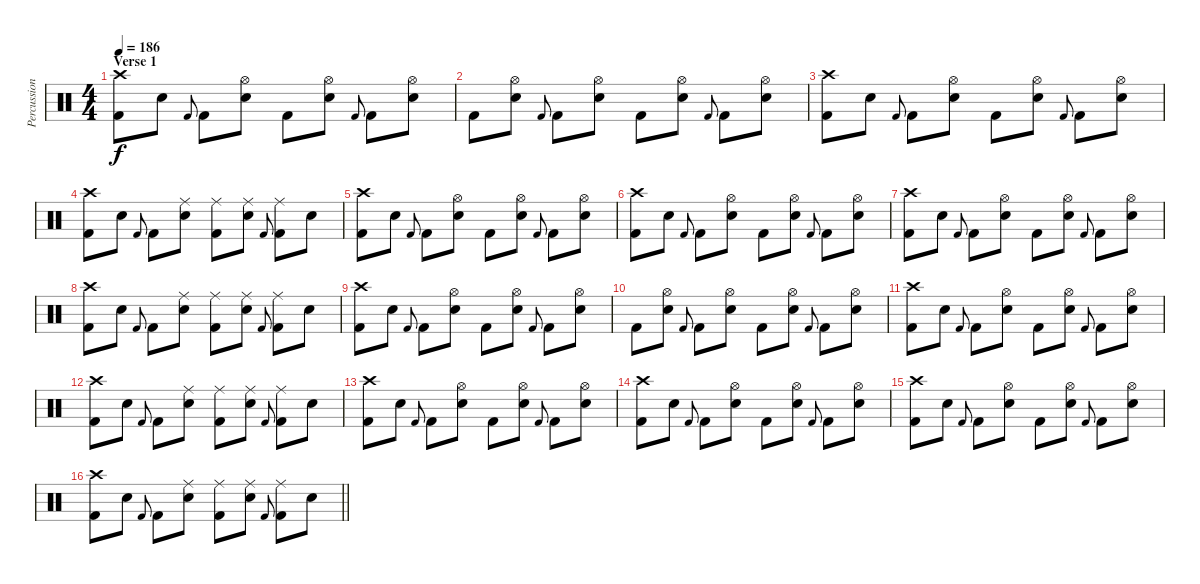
\track ("Percussion" "Percussion") {instrument percussion}
\staff {score}
\articulation defaults
\ts (4 4)
\section ("" "Verse 1")
\tempo 186
\clef neutral
\ks c
("Crash high (hit)" "Kick (hit) 2").8{dy f} "Electric Snare (hit)".8 "Kick (hit) 2".8{gr onbeat} "Kick (hit) 2".8 ("Hi-Hat (open)" "Electric Snare (hit)").8 "Kick (hit) 2".8 ("Hi-Hat (open)" "Electric Snare (hit)").8 "Kick (hit) 2".8{gr onbeat} "Kick (hit) 2".8 ("Hi-Hat (open)" "Electric Snare (hit)").8 |
"Kick (hit) 2".8 ("Hi-Hat (open)" "Electric Snare (hit)").8 "Kick (hit) 2".8{gr onbeat} "Kick (hit) 2".8 ("Hi-Hat (open)" "Electric Snare (hit)").8 "Kick (hit) 2".8 ("Hi-Hat (open)" "Electric Snare (hit)").8 "Kick (hit) 2".8{gr onbeat} "Kick (hit) 2".8 ("Hi-Hat (open)" "Electric Snare (hit)").8 |
("Crash high (hit)" "Kick (hit) 2").8 "Electric Snare (hit)".8 "Kick (hit) 2".8{gr onbeat} "Kick (hit) 2".8 ("Hi-Hat (open)" "Electric Snare (hit)").8 "Kick (hit) 2".8 ("Hi-Hat (open)" "Electric Snare (hit)").8 "Kick (hit) 2".8{gr onbeat} "Kick (hit) 2".8 ("Hi-Hat (open)" "Electric Snare (hit)").8 |
("Crash high (hit)" "Kick (hit) 2").8 "Electric Snare (hit)".8 "Kick (hit) 2".8{gr onbeat} "Kick (hit) 2".8 ("Ride (middle)" "Electric Snare (hit)").8 ("Ride (middle)" "Kick (hit) 2").8 ("Ride (middle)" "Electric Snare (hit)").8 "Kick (hit) 2".8{gr onbeat} ("Ride (middle)" "Kick (hit) 2").8 "Electric Snare (hit)".8 |
("Crash high (hit)" "Kick (hit) 2").8 "Electric Snare (hit)".8 "Kick (hit) 2".8{gr onbeat} "Kick (hit) 2".8 ("Hi-Hat (open)" "Electric Snare (hit)").8 "Kick (hit) 2".8 ("Hi-Hat (open)" "Electric Snare (hit)").8 "Kick (hit) 2".8{gr onbeat} "Kick (hit) 2".8 ("Hi-Hat (open)" "Electric Snare (hit)").8 |
("Crash high (hit)" "Kick (hit) 2").8 "Electric Snare (hit)".8 "Kick (hit) 2".8{gr onbeat} "Kick (hit) 2".8 ("Hi-Hat (open)" "Electric Snare (hit)").8 "Kick (hit) 2".8 ("Hi-Hat (open)" "Electric Snare (hit)").8 "Kick (hit) 2".8{gr onbeat} "Kick (hit) 2".8 ("Hi-Hat (open)" "Electric Snare (hit)").8 |
("Crash high (hit)" "Kick (hit) 2").8 "Electric Snare (hit)".8 "Kick (hit) 2".8{gr onbeat} "Kick (hit) 2".8 ("Hi-Hat (open)" "Electric Snare (hit)").8 "Kick (hit) 2".8 ("Hi-Hat (open)" "Electric Snare (hit)").8 "Kick (hit) 2".8{gr onbeat} "Kick (hit) 2".8 ("Hi-Hat (open)" "Electric Snare (hit)").8 |
("Crash high (hit)" "Kick (hit) 2").8 "Electric Snare (hit)".8 "Kick (hit) 2".8{gr onbeat} "Kick (hit) 2".8 ("Ride (middle)" "Electric Snare (hit)").8 ("Ride (middle)" "Kick (hit) 2").8 ("Ride (middle)" "Electric Snare (hit)").8 "Kick (hit) 2".8{gr onbeat} ("Ride (middle)" "Kick (hit) 2").8 "Electric Snare (hit)".8 |
("Crash high (hit)" "Kick (hit) 2").8 "Electric Snare (hit)".8 "Kick (hit) 2".8{gr onbeat} "Kick (hit) 2".8 ("Hi-Hat (open)" "Electric Snare (hit)").8 "Kick (hit) 2".8 ("Hi-Hat (open)" "Electric Snare (hit)").8 "Kick (hit) 2".8{gr onbeat} "Kick (hit) 2".8 ("Hi-Hat (open)" "Electric Snare (hit)").8 |
"Kick (hit) 2".8 ("Hi-Hat (open)" "Electric Snare (hit)").8 "Kick (hit) 2".8{gr onbeat} "Kick (hit) 2".8 ("Hi-Hat (open)" "Electric Snare (hit)").8 "Kick (hit) 2".8 ("Hi-Hat (open)" "Electric Snare (hit)").8 "Kick (hit) 2".8{gr onbeat} "Kick (hit) 2".8 ("Hi-Hat (open)" "Electric Snare (hit)").8 |
("Crash high (hit)" "Kick (hit) 2").8 "Electric Snare (hit)".8 "Kick (hit) 2".8{gr onbeat} "Kick (hit) 2".8 ("Hi-Hat (open)" "Electric Snare (hit)").8 "Kick (hit) 2".8 ("Hi-Hat (open)" "Electric Snare (hit)").8 "Kick (hit) 2".8{gr onbeat} "Kick (hit) 2".8 ("Hi-Hat (open)" "Electric Snare (hit)").8 |
("Crash high (hit)" "Kick (hit) 2").8 "Electric Snare (hit)".8 "Kick (hit) 2".8{gr onbeat} "Kick (hit) 2".8 ("Ride (middle)" "Electric Snare (hit)").8 ("Ride (middle)" "Kick (hit) 2").8 ("Ride (middle)" "Electric Snare (hit)").8 "Kick (hit) 2".8{gr onbeat} ("Ride (middle)" "Kick (hit) 2").8 "Electric Snare (hit)".8 |
("Crash high (hit)" "Kick (hit) 2").8 "Electric Snare (hit)".8 "Kick (hit) 2".8{gr onbeat} "Kick (hit) 2".8 ("Hi-Hat (open)" "Electric Snare (hit)").8 "Kick (hit) 2".8 ("Hi-Hat (open)" "Electric Snare (hit)").8 "Kick (hit) 2".8{gr onbeat} "Kick (hit) 2".8 ("Hi-Hat (open)" "Electric Snare (hit)").8 |
("Crash high (hit)" "Kick (hit) 2").8 "Electric Snare (hit)".8 "Kick (hit) 2".8{gr onbeat} "Kick (hit) 2".8 ("Hi-Hat (open)" "Electric Snare (hit)").8 "Kick (hit) 2".8 ("Hi-Hat (open)" "Electric Snare (hit)").8 "Kick (hit) 2".8{gr onbeat} "Kick (hit) 2".8 ("Hi-Hat (open)" "Electric Snare (hit)").8 |
("Crash high (hit)" "Kick (hit) 2").8 "Electric Snare (hit)".8 "Kick (hit) 2".8{gr onbeat} "Kick (hit) 2".8 ("Hi-Hat (open)" "Electric Snare (hit)").8 "Kick (hit) 2".8 ("Hi-Hat (open)" "Electric Snare (hit)").8 "Kick (hit) 2".8{gr onbeat} "Kick (hit) 2".8 ("Hi-Hat (open)" "Electric Snare (hit)").8 |
\barLineRight lightlight
("Crash high (hit)" "Kick (hit) 2").8 "Electric Snare (hit)".8 "Kick (hit) 2".8{gr onbeat} "Kick (hit) 2".8 ("Ride (middle)" "Electric Snare (hit)").8 ("Ride (middle)" "Kick (hit) 2").8 ("Ride (middle)" "Electric Snare (hit)").8 "Kick (hit) 2".8{gr onbeat} ("Ride (middle)" "Kick (hit) 2").8 "Electric Snare (hit)".8
